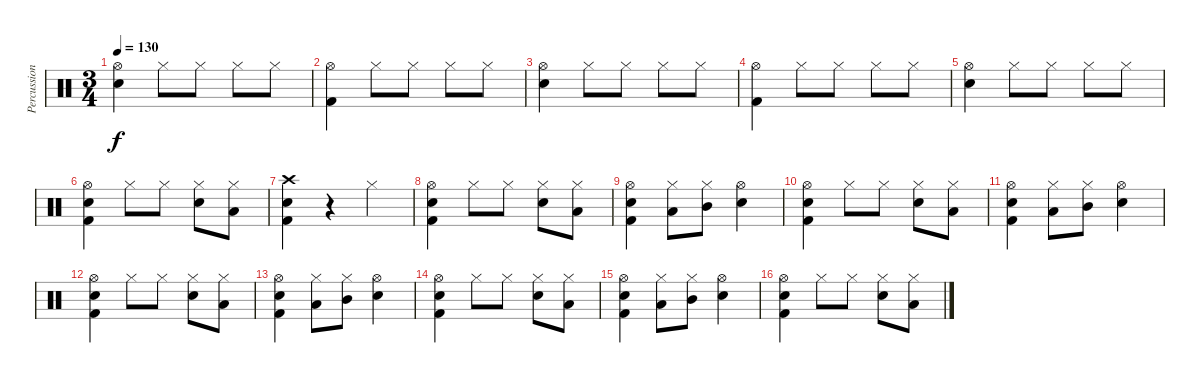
\track ("Percussion" "Percussion") {instrument percussion}
\staff {score}
\articulation defaults
\ts (3 4)
\tempo 130
\clef neutral
\ks c
("Hi-Hat (open)" "Snare (hit) 2").4{dy f} "Hi-Hat (closed)".8 "Hi-Hat (closed)".8 "Hi-Hat (closed)".8 "Hi-Hat (closed)".8 |
("Hi-Hat (open)" "Kick (hit) 2").4 "Hi-Hat (closed)".8 "Hi-Hat (closed)".8 "Hi-Hat (closed)".8 "Hi-Hat (closed)".8 |
("Hi-Hat (open)" "Snare (hit) 2").4 "Hi-Hat (closed)".8 "Hi-Hat (closed)".8 "Hi-Hat (closed)".8 "Hi-Hat (closed)".8 |
("Hi-Hat (open)" "Kick (hit) 2").4 "Hi-Hat (closed)".8 "Hi-Hat (closed)".8 "Hi-Hat (closed)".8 "Hi-Hat (closed)".8 |
("Hi-Hat (open)" "Snare (hit) 2").4 "Hi-Hat (closed)".8 "Hi-Hat (closed)".8 "Hi-Hat (closed)".8 "Hi-Hat (closed)".8 |
("Snare (hit) 2" "Hi-Hat (open)" "Kick (hit) 2").4 "Hi-Hat (closed)".8 "Hi-Hat (closed)".8 ("Snare (hit) 2" "Hi-Hat (closed)").8 ("Low Tom (hit)" "Hi-Hat (closed)").8 |
("Snare (hit) 2" "Crash high (hit)" "Kick (hit) 2").4 r.4 "Hi-Hat (closed)".4 |
("Snare (hit) 2" "Hi-Hat (open)" "Kick (hit) 2").4 "Hi-Hat (closed)".8 "Hi-Hat (closed)".8 ("Snare (hit) 2" "Hi-Hat (closed)").8 ("Low Tom (hit)" "Hi-Hat (closed)").8 |
("Snare (hit) 2" "Hi-Hat (open)" "Kick (hit) 2").4 ("Low Tom (hit)" "Hi-Hat (closed)").8 ("Mid Tom (hit)" "Hi-Hat (closed)").8 ("Snare (hit) 2" "Hi-Hat (open)").4 |
("Snare (hit) 2" "Hi-Hat (open)" "Kick (hit) 2").4 "Hi-Hat (closed)".8 "Hi-Hat (closed)".8 ("Snare (hit) 2" "Hi-Hat (closed)").8 ("Low Tom (hit)" "Hi-Hat (closed)").8 |
("Snare (hit) 2" "Hi-Hat (open)" "Kick (hit) 2").4 ("Low Tom (hit)" "Hi-Hat (closed)").8 ("Mid Tom (hit)" "Hi-Hat (closed)").8 ("Snare (hit) 2" "Hi-Hat (open)").4 |
("Snare (hit) 2" "Hi-Hat (open)" "Kick (hit) 2").4 "Hi-Hat (closed)".8 "Hi-Hat (closed)".8 ("Snare (hit) 2" "Hi-Hat (closed)").8 ("Low Tom (hit)" "Hi-Hat (closed)").8 |
("Snare (hit) 2" "Hi-Hat (open)" "Kick (hit) 2").4 ("Low Tom (hit)" "Hi-Hat (closed)").8 ("Mid Tom (hit)" "Hi-Hat (closed)").8 ("Snare (hit) 2" "Hi-Hat (open)").4 |
("Snare (hit) 2" "Hi-Hat (open)" "Kick (hit) 2").4 "Hi-Hat (closed)".8 "Hi-Hat (closed)".8 ("Snare (hit) 2" "Hi-Hat (closed)").8 ("Low Tom (hit)" "Hi-Hat (closed)").8 |
("Snare (hit) 2" "Hi-Hat (open)" "Kick (hit) 2").4 ("Low Tom (hit)" "Hi-Hat (closed)").8 ("Mid Tom (hit)" "Hi-Hat (closed)").8 ("Snare (hit) 2" "Hi-Hat (open)").4 |
("Snare (hit) 2" "Hi-Hat (open)" "Kick (hit) 2").4 "Hi-Hat (closed)".8 "Hi-Hat (closed)".8 ("Snare (hit) 2" "Hi-Hat (closed)").8 ("Low Tom (hit)" "Hi-Hat (closed)").8
